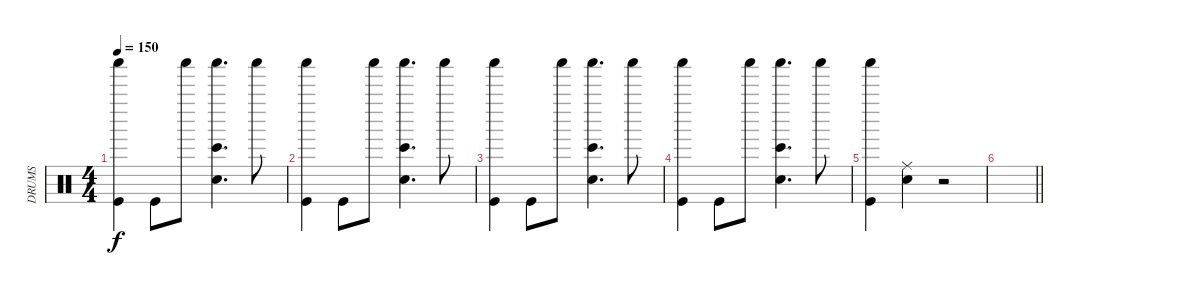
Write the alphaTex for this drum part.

\track ("DRUMS" "DRUMS") {instrument percussion}
\staff {score}
\articulation defaults
\ts (4 4)
\tempo 150
\clef neutral
\ks c
("Shaker (hit)" "Kick (hit)").4{dy f} "Kick (hit)".8 "Shaker (hit)".8 ("Shaker (hit)" "Bongo High (hit)" "Snare (hit) 2").4{d} "Shaker (hit)".8 |
("Shaker (hit)" "Kick (hit)").4 "Kick (hit)".8 "Shaker (hit)".8 ("Shaker (hit)" "Bongo High (hit)" "Snare (hit) 2").4{d} "Shaker (hit)".8 |
("Shaker (hit)" "Kick (hit)").4 "Kick (hit)".8 "Shaker (hit)".8 ("Shaker (hit)" "Bongo High (hit)" "Snare (hit) 2").4{d} "Shaker (hit)".8 |
("Shaker (hit)" "Kick (hit)").4 "Kick (hit)".8 "Shaker (hit)".8 ("Shaker (hit)" "Bongo High (hit)" "Snare (hit) 2").4{d} "Shaker (hit)".8 |
("Shaker (hit)" "Kick (hit)").4 ("Ride (middle)" "Snare (hit) 2").4 r.2 |
\barLineRight lightlight
